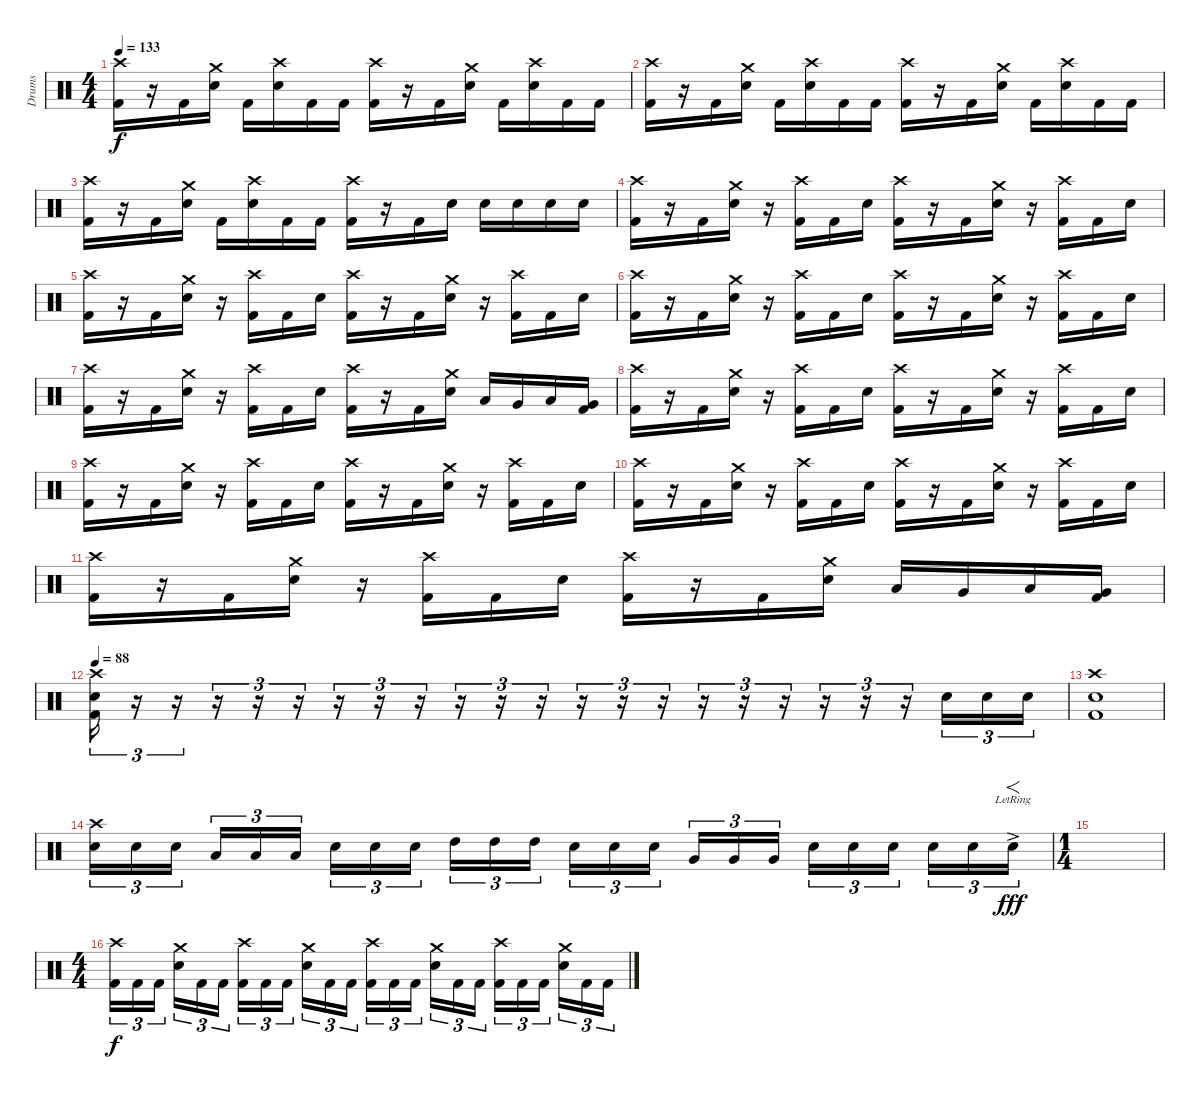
\track ("Drums" "Drums") {instrument percussion}
\staff {score}
\articulation defaults
\ts (4 4)
\tempo 133
\clef neutral
\ks c
("Crash high (hit)" "Kick (hit) 2").16{dy f} r.16 "Kick (hit) 2".16 ("Crash medium (hit)" "Electric Snare (hit)").16 "Kick (hit) 2".16 ("Crash high (hit)" "Electric Snare (hit)").16 "Kick (hit) 2".16 "Kick (hit) 2".16 ("Crash high (hit)" "Kick (hit) 2").16 r.16 "Kick (hit) 2".16 ("Crash medium (hit)" "Electric Snare (hit)").16 "Kick (hit) 2".16 ("Crash high (hit)" "Electric Snare (hit)").16 "Kick (hit) 2".16 "Kick (hit) 2".16 |
("Crash high (hit)" "Kick (hit) 2").16 r.16 "Kick (hit) 2".16 ("Crash medium (hit)" "Electric Snare (hit)").16 "Kick (hit) 2".16 ("Crash high (hit)" "Electric Snare (hit)").16 "Kick (hit) 2".16 "Kick (hit) 2".16 ("Crash high (hit)" "Kick (hit) 2").16 r.16 "Kick (hit) 2".16 ("Crash medium (hit)" "Electric Snare (hit)").16 "Kick (hit) 2".16 ("Crash high (hit)" "Electric Snare (hit)").16 "Kick (hit) 2".16 "Kick (hit) 2".16 |
("Crash high (hit)" "Kick (hit) 2").16 r.16 "Kick (hit) 2".16 ("Crash medium (hit)" "Electric Snare (hit)").16 "Kick (hit) 2".16 ("Crash high (hit)" "Electric Snare (hit)").16 "Kick (hit) 2".16 "Kick (hit) 2".16 ("Crash high (hit)" "Kick (hit) 2").16 r.16 "Kick (hit) 2".16 "Electric Snare (hit)".16 "Electric Snare (hit)".16 "Electric Snare (hit)".16 "Electric Snare (hit)".16 "Electric Snare (hit)".16 |
("Crash high (hit)" "Kick (hit) 2").16 r.16 "Kick (hit) 2".16 ("Crash medium (hit)" "Electric Snare (hit)").16 r.16 ("Crash high (hit)" "Kick (hit) 2").16 "Kick (hit) 2".16 "Electric Snare (hit)".16 ("Crash high (hit)" "Kick (hit) 2").16 r.16 "Kick (hit) 2".16 ("Crash medium (hit)" "Electric Snare (hit)").16 r.16 ("Crash high (hit)" "Kick (hit) 2").16 "Kick (hit) 2".16 "Electric Snare (hit)".16 |
("Crash high (hit)" "Kick (hit) 2").16 r.16 "Kick (hit) 2".16 ("Crash medium (hit)" "Electric Snare (hit)").16 r.16 ("Crash high (hit)" "Kick (hit) 2").16 "Kick (hit) 2".16 "Electric Snare (hit)".16 ("Crash high (hit)" "Kick (hit) 2").16 r.16 "Kick (hit) 2".16 ("Crash medium (hit)" "Electric Snare (hit)").16 r.16 ("Crash high (hit)" "Kick (hit) 2").16 "Kick (hit) 2".16 "Electric Snare (hit)".16 |
("Crash high (hit)" "Kick (hit) 2").16 r.16 "Kick (hit) 2".16 ("Crash medium (hit)" "Electric Snare (hit)").16 r.16 ("Crash high (hit)" "Kick (hit) 2").16 "Kick (hit) 2".16 "Electric Snare (hit)".16 ("Crash high (hit)" "Kick (hit) 2").16 r.16 "Kick (hit) 2".16 ("Crash medium (hit)" "Electric Snare (hit)").16 r.16 ("Crash high (hit)" "Kick (hit) 2").16 "Kick (hit) 2".16 "Electric Snare (hit)".16 |
("Crash high (hit)" "Kick (hit) 2").16 r.16 "Kick (hit) 2".16 ("Crash medium (hit)" "Electric Snare (hit)").16 r.16 ("Crash high (hit)" "Kick (hit) 2").16 "Kick (hit) 2".16 "Electric Snare (hit)".16 ("Crash high (hit)" "Kick (hit) 2").16 r.16 "Kick (hit) 2".16 ("Crash medium (hit)" "Electric Snare (hit)").16 "Low Tom (hit)".16 "Very Low Tom (hit)".16 "Low Floor Tom (hit)".16 ("Very Low Tom (hit)" "Kick (hit) 2").16 |
("Crash high (hit)" "Kick (hit) 2").16 r.16 "Kick (hit) 2".16 ("Crash medium (hit)" "Electric Snare (hit)").16 r.16 ("Crash high (hit)" "Kick (hit) 2").16 "Kick (hit) 2".16 "Electric Snare (hit)".16 ("Crash high (hit)" "Kick (hit) 2").16 r.16 "Kick (hit) 2".16 ("Crash medium (hit)" "Electric Snare (hit)").16 r.16 ("Crash high (hit)" "Kick (hit) 2").16 "Kick (hit) 2".16 "Electric Snare (hit)".16 |
("Crash high (hit)" "Kick (hit) 2").16 r.16 "Kick (hit) 2".16 ("Crash medium (hit)" "Electric Snare (hit)").16 r.16 ("Crash high (hit)" "Kick (hit) 2").16 "Kick (hit) 2".16 "Electric Snare (hit)".16 ("Crash high (hit)" "Kick (hit) 2").16 r.16 "Kick (hit) 2".16 ("Crash medium (hit)" "Electric Snare (hit)").16 r.16 ("Crash high (hit)" "Kick (hit) 2").16 "Kick (hit) 2".16 "Electric Snare (hit)".16 |
("Crash high (hit)" "Kick (hit) 2").16 r.16 "Kick (hit) 2".16 ("Crash medium (hit)" "Electric Snare (hit)").16 r.16 ("Crash high (hit)" "Kick (hit) 2").16 "Kick (hit) 2".16 "Electric Snare (hit)".16 ("Crash high (hit)" "Kick (hit) 2").16 r.16 "Kick (hit) 2".16 ("Crash medium (hit)" "Electric Snare (hit)").16 r.16 ("Crash high (hit)" "Kick (hit) 2").16 "Kick (hit) 2".16 "Electric Snare (hit)".16 |
("Crash high (hit)" "Kick (hit) 2").16 r.16 "Kick (hit) 2".16 ("Crash medium (hit)" "Electric Snare (hit)").16 r.16 ("Crash high (hit)" "Kick (hit) 2").16 "Kick (hit) 2".16 "Electric Snare (hit)".16 ("Crash high (hit)" "Kick (hit) 2").16 r.16 "Kick (hit) 2".16 ("Crash medium (hit)" "Electric Snare (hit)").16 "Low Tom (hit)".16 "Very Low Tom (hit)".16 "Low Floor Tom (hit)".16 ("Very Low Tom (hit)" "Kick (hit) 2").16 |
\tempo 88
("Crash high (hit)" "Electric Snare (hit)" "Kick (hit) 2").16{tu (3 2)} r.16{tu (3 2)} r.16{tu (3 2)} r.16{tu (3 2)} r.16{tu (3 2)} r.16{tu (3 2)} r.16{tu (3 2)} r.16{tu (3 2)} r.16{tu (3 2)} r.16{tu (3 2)} r.16{tu (3 2)} r.16{tu (3 2)} r.16{tu (3 2)} r.16{tu (3 2)} r.16{tu (3 2)} r.16{tu (3 2)} r.16{tu (3 2)} r.16{tu (3 2)} r.16{tu (3 2)} r.16{tu (3 2)} r.16{tu (3 2)} "Electric Snare (hit)".16{tu (3 2)} "Electric Snare (hit)".16{tu (3 2)} "Electric Snare (hit)".16{tu (3 2)} |
("Crash high (hit)" "Electric Snare (hit)" "Kick (hit) 2").1 |
("Crash high (hit)" "Electric Snare (hit)").16{tu (3 2)} "Electric Snare (hit)".16{tu (3 2)} "Electric Snare (hit)".16{tu (3 2)} "Low Tom (hit)".16{tu (3 2)} "Low Tom (hit)".16{tu (3 2)} "Low Tom (hit)".16{tu (3 2)} "Electric Snare (hit)".16{tu (3 2)} "Electric Snare (hit)".16{tu (3 2)} "Electric Snare (hit)".16{tu (3 2)} "High Tom (hit)".16{tu (3 2)} "High Tom (hit)".16{tu (3 2)} "High Tom (hit)".16{tu (3 2)} "Electric Snare (hit)".16{tu (3 2)} "Electric Snare (hit)".16{tu (3 2)} "Electric Snare (hit)".16{tu (3 2)} "Very Low Tom (hit)".16{tu (3 2)} "Very Low Tom (hit)".16{tu (3 2)} "Very Low Tom (hit)".16{tu (3 2)} "Electric Snare (hit)".16{tu (3 2)} "Electric Snare (hit)".16{tu (3 2)} "Electric Snare (hit)".16{tu (3 2)} "Electric Snare (hit)".16{tu (3 2)} "Electric Snare (hit)".16{tu (3 2)} "Electric Snare (hit)"{ac lr}.16{f tu (3 2) dy fff} |
\ts (1 4)
|
\ts (4 4)
("Crash high (hit)" "Kick (hit) 2").16{tu (3 2) dy f} "Kick (hit) 2".16{tu (3 2)} "Kick (hit) 2".16{tu (3 2)} ("Crash medium (hit)" "Electric Snare (hit)").16{tu (3 2)} "Kick (hit) 2".16{tu (3 2)} "Kick (hit) 2".16{tu (3 2)} ("Crash high (hit)" "Kick (hit) 2").16{tu (3 2)} "Kick (hit) 2".16{tu (3 2)} "Kick (hit) 2".16{tu (3 2)} ("Crash medium (hit)" "Electric Snare (hit)").16{tu (3 2)} "Kick (hit) 2".16{tu (3 2)} "Kick (hit) 2".16{tu (3 2)} ("Crash high (hit)" "Kick (hit) 2").16{tu (3 2)} "Kick (hit) 2".16{tu (3 2)} "Kick (hit) 2".16{tu (3 2)} ("Crash medium (hit)" "Electric Snare (hit)").16{tu (3 2)} "Kick (hit) 2".16{tu (3 2)} "Kick (hit) 2".16{tu (3 2)} ("Crash high (hit)" "Kick (hit) 2").16{tu (3 2)} "Kick (hit) 2".16{tu (3 2)} "Kick (hit) 2".16{tu (3 2)} ("Crash medium (hit)" "Electric Snare (hit)").16{tu (3 2)} "Kick (hit) 2".16{tu (3 2)} "Kick (hit) 2".16{tu (3 2)}
